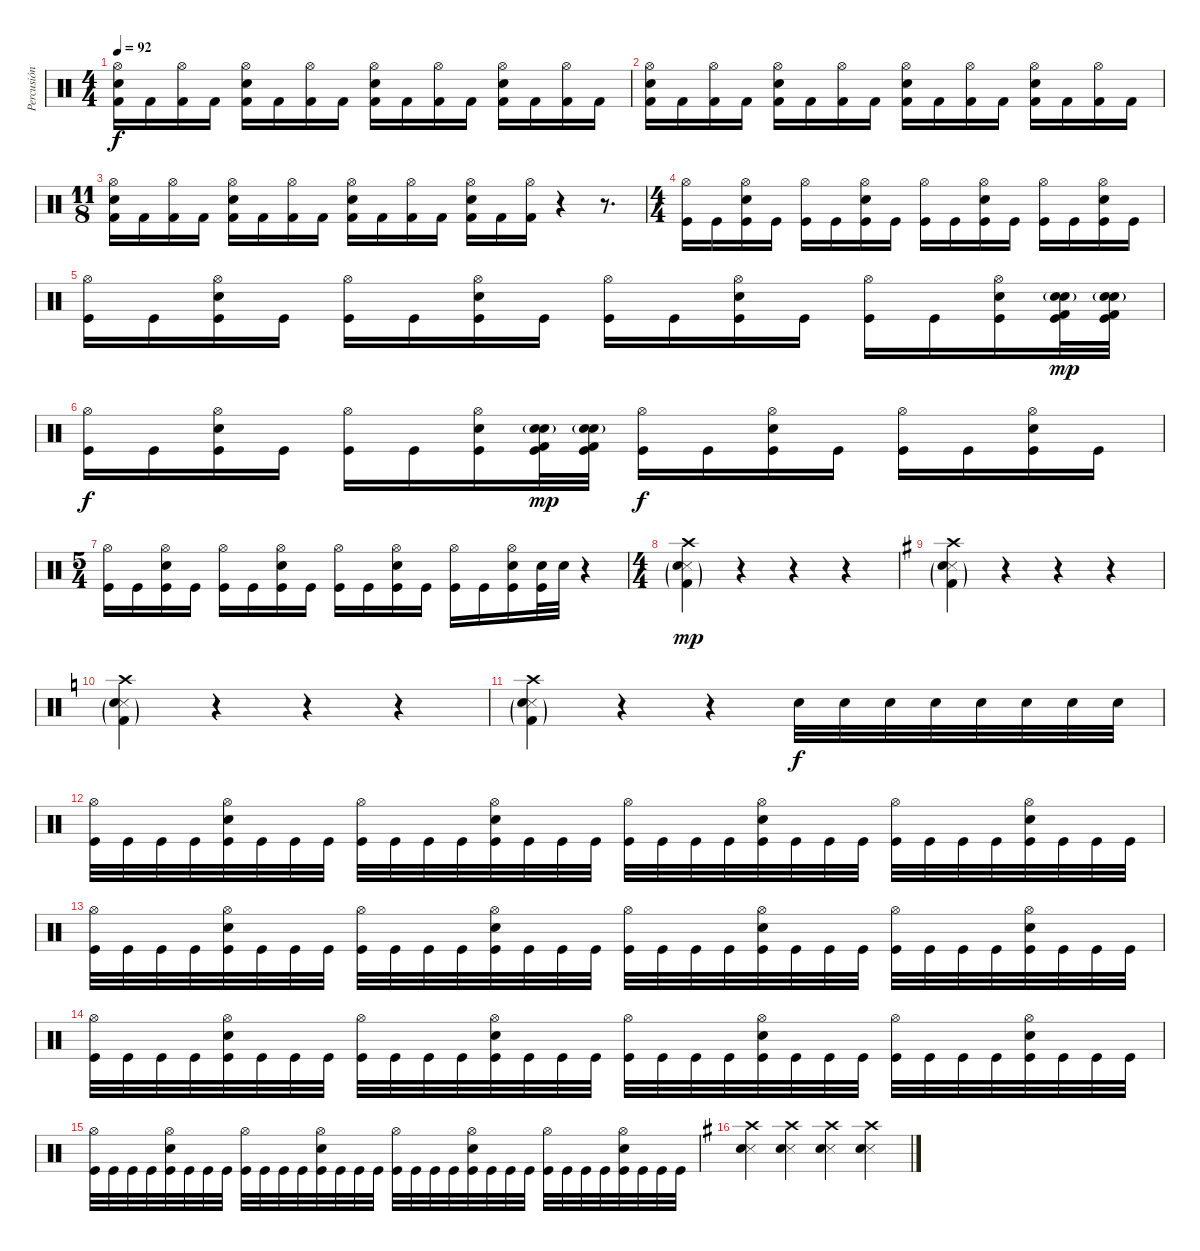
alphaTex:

\track ("Percusión" "Percusión") {instrument percussion}
\staff {score}
\articulation defaults
\ts (4 4)
\tempo 92
\clef neutral
\ks c
("Snare (hit) 2" "Hi-Hat (open)" "Kick (hit) 2").16{dy f} "Kick (hit) 2".16 ("Hi-Hat (open)" "Kick (hit) 2").16 "Kick (hit) 2".16 ("Snare (hit) 2" "Hi-Hat (open)" "Kick (hit) 2").16 "Kick (hit) 2".16 ("Hi-Hat (open)" "Kick (hit) 2").16 "Kick (hit) 2".16 ("Snare (hit) 2" "Hi-Hat (open)" "Kick (hit) 2").16 "Kick (hit) 2".16 ("Hi-Hat (open)" "Kick (hit) 2").16 "Kick (hit) 2".16 ("Snare (hit) 2" "Hi-Hat (open)" "Kick (hit) 2").16 "Kick (hit) 2".16 ("Hi-Hat (open)" "Kick (hit) 2").16 "Kick (hit) 2".16 |
("Snare (hit) 2" "Hi-Hat (open)" "Kick (hit) 2").16 "Kick (hit) 2".16 ("Hi-Hat (open)" "Kick (hit) 2").16 "Kick (hit) 2".16 ("Snare (hit) 2" "Hi-Hat (open)" "Kick (hit) 2").16 "Kick (hit) 2".16 ("Hi-Hat (open)" "Kick (hit) 2").16 "Kick (hit) 2".16 ("Snare (hit) 2" "Hi-Hat (open)" "Kick (hit) 2").16 "Kick (hit) 2".16 ("Hi-Hat (open)" "Kick (hit) 2").16 "Kick (hit) 2".16 ("Snare (hit) 2" "Hi-Hat (open)" "Kick (hit) 2").16 "Kick (hit) 2".16 ("Hi-Hat (open)" "Kick (hit) 2").16 "Kick (hit) 2".16 |
\ts (11 8)
("Snare (hit) 2" "Hi-Hat (open)" "Kick (hit) 2").16 "Kick (hit) 2".16 ("Hi-Hat (open)" "Kick (hit) 2").16 "Kick (hit) 2".16 ("Snare (hit) 2" "Hi-Hat (open)" "Kick (hit) 2").16 "Kick (hit) 2".16 ("Hi-Hat (open)" "Kick (hit) 2").16 "Kick (hit) 2".16 ("Snare (hit) 2" "Hi-Hat (open)" "Kick (hit) 2").16 "Kick (hit) 2".16 ("Hi-Hat (open)" "Kick (hit) 2").16 "Kick (hit) 2".16 ("Snare (hit) 2" "Hi-Hat (open)" "Kick (hit) 2").16 "Kick (hit) 2".16 ("Hi-Hat (open)" "Kick (hit) 2").16 r.4 r.8{d} |
\ts (4 4)
("Hi-Hat (open)" "Kick (hit)").16 "Kick (hit)".16 ("Snare (hit) 2" "Hi-Hat (open)" "Kick (hit)").16 "Kick (hit)".16 ("Hi-Hat (open)" "Kick (hit)").16 "Kick (hit)".16 ("Snare (hit) 2" "Hi-Hat (open)" "Kick (hit)").16 "Kick (hit)".16 ("Hi-Hat (open)" "Kick (hit)").16 "Kick (hit)".16 ("Snare (hit) 2" "Hi-Hat (open)" "Kick (hit)").16 "Kick (hit)".16 ("Hi-Hat (open)" "Kick (hit)").16 "Kick (hit)".16 ("Snare (hit) 2" "Hi-Hat (open)" "Kick (hit)").16 "Kick (hit)".16 |
("Hi-Hat (open)" "Kick (hit)").16 "Kick (hit)".16 ("Snare (hit) 2" "Hi-Hat (open)" "Kick (hit)").16 "Kick (hit)".16 ("Hi-Hat (open)" "Kick (hit)").16 "Kick (hit)".16 ("Snare (hit) 2" "Hi-Hat (open)" "Kick (hit)").16 "Kick (hit)".16 ("Hi-Hat (open)" "Kick (hit)").16 "Kick (hit)".16 ("Snare (hit) 2" "Hi-Hat (open)" "Kick (hit)").16 "Kick (hit)".16 ("Hi-Hat (open)" "Kick (hit)").16 "Kick (hit)".16 ("Snare (hit) 2" "Hi-Hat (open)" "Kick (hit)").16 ("Snare (hit) 2"{g} "Electric Snare (hit)" "Kick (hit) 2" "Kick (hit)").32{dy mp} ("Snare (hit) 2"{g} "Electric Snare (hit)" "Kick (hit) 2" "Kick (hit)").32 |
("Hi-Hat (open)" "Kick (hit)").16{dy f} "Kick (hit)".16 ("Snare (hit) 2" "Hi-Hat (open)" "Kick (hit)").16 "Kick (hit)".16 ("Hi-Hat (open)" "Kick (hit)").16 "Kick (hit)".16 ("Snare (hit) 2" "Hi-Hat (open)" "Kick (hit)").16 ("Snare (hit) 2"{g} "Electric Snare (hit)" "Kick (hit) 2" "Kick (hit)").32{dy mp} ("Snare (hit) 2"{g} "Electric Snare (hit)" "Kick (hit) 2" "Kick (hit)").32 ("Hi-Hat (open)" "Kick (hit)").16{dy f} "Kick (hit)".16 ("Snare (hit) 2" "Hi-Hat (open)" "Kick (hit)").16 "Kick (hit)".16 ("Hi-Hat (open)" "Kick (hit)").16 "Kick (hit)".16 ("Snare (hit) 2" "Hi-Hat (open)" "Kick (hit)").16 "Kick (hit)".16 |
\ts (5 4)
("Hi-Hat (open)" "Kick (hit)").16 "Kick (hit)".16 ("Snare (hit) 2" "Hi-Hat (open)" "Kick (hit)").16 "Kick (hit)".16 ("Hi-Hat (open)" "Kick (hit)").16 "Kick (hit)".16 ("Snare (hit) 2" "Hi-Hat (open)" "Kick (hit)").16 "Kick (hit)".16 ("Hi-Hat (open)" "Kick (hit)").16 "Kick (hit)".16 ("Snare (hit) 2" "Hi-Hat (open)" "Kick (hit)").16 "Kick (hit)".16 ("Hi-Hat (open)" "Kick (hit)").16 "Kick (hit)".16 ("Snare (hit) 2" "Hi-Hat (open)" "Kick (hit)").16 ("Snare (hit) 2" "Kick (hit)").32 "Snare (hit) 2".32 r.4 |
\ts (4 4)
("Snare (side stick) 3" "Snare (hit) 2"{g} "Crash high (hit)" "Kick (hit) 2"{g}).4{dy mp} r.4 r.4 r.4 |
\ks g
("Snare (side stick) 3" "Snare (hit) 2"{g} "Crash high (hit)" "Kick (hit) 2"{g}).4 r.4 r.4 r.4 |
\ks c
("Snare (side stick) 3" "Snare (hit) 2"{g} "Crash high (hit)" "Kick (hit) 2"{g}).4 r.4 r.4 r.4 |
("Snare (side stick) 3" "Snare (hit) 2"{g} "Crash high (hit)" "Kick (hit) 2"{g}).4 r.4 r.4 "Snare (hit) 2".32{dy f} "Snare (hit) 2".32 "Snare (hit) 2".32 "Snare (hit) 2".32 "Snare (hit) 2".32 "Snare (hit) 2".32 "Snare (hit) 2".32 "Snare (hit) 2".32 |
("Hi-Hat (open)" "Kick (hit)").32 "Kick (hit)".32 "Kick (hit)".32 "Kick (hit)".32 ("Snare (hit) 2" "Hi-Hat (open)" "Kick (hit)").32 "Kick (hit)".32 "Kick (hit)".32 "Kick (hit)".32 ("Hi-Hat (open)" "Kick (hit)").32 "Kick (hit)".32 "Kick (hit)".32 "Kick (hit)".32 ("Snare (hit) 2" "Hi-Hat (open)" "Kick (hit)").32 "Kick (hit)".32 "Kick (hit)".32 "Kick (hit)".32 ("Hi-Hat (open)" "Kick (hit)").32 "Kick (hit)".32 "Kick (hit)".32 "Kick (hit)".32 ("Snare (hit) 2" "Hi-Hat (open)" "Kick (hit)").32 "Kick (hit)".32 "Kick (hit)".32 "Kick (hit)".32 ("Hi-Hat (open)" "Kick (hit)").32 "Kick (hit)".32 "Kick (hit)".32 "Kick (hit)".32 ("Snare (hit) 2" "Hi-Hat (open)" "Kick (hit)").32 "Kick (hit)".32 "Kick (hit)".32 "Kick (hit)".32 |
("Hi-Hat (open)" "Kick (hit)").32 "Kick (hit)".32 "Kick (hit)".32 "Kick (hit)".32 ("Snare (hit) 2" "Hi-Hat (open)" "Kick (hit)").32 "Kick (hit)".32 "Kick (hit)".32 "Kick (hit)".32 ("Hi-Hat (open)" "Kick (hit)").32 "Kick (hit)".32 "Kick (hit)".32 "Kick (hit)".32 ("Snare (hit) 2" "Hi-Hat (open)" "Kick (hit)").32 "Kick (hit)".32 "Kick (hit)".32 "Kick (hit)".32 ("Hi-Hat (open)" "Kick (hit)").32 "Kick (hit)".32 "Kick (hit)".32 "Kick (hit)".32 ("Snare (hit) 2" "Hi-Hat (open)" "Kick (hit)").32 "Kick (hit)".32 "Kick (hit)".32 "Kick (hit)".32 ("Hi-Hat (open)" "Kick (hit)").32 "Kick (hit)".32 "Kick (hit)".32 "Kick (hit)".32 ("Snare (hit) 2" "Hi-Hat (open)" "Kick (hit)").32 "Kick (hit)".32 "Kick (hit)".32 "Kick (hit)".32 |
("Hi-Hat (open)" "Kick (hit)").32 "Kick (hit)".32 "Kick (hit)".32 "Kick (hit)".32 ("Snare (hit) 2" "Hi-Hat (open)" "Kick (hit)").32 "Kick (hit)".32 "Kick (hit)".32 "Kick (hit)".32 ("Hi-Hat (open)" "Kick (hit)").32 "Kick (hit)".32 "Kick (hit)".32 "Kick (hit)".32 ("Snare (hit) 2" "Hi-Hat (open)" "Kick (hit)").32 "Kick (hit)".32 "Kick (hit)".32 "Kick (hit)".32 ("Hi-Hat (open)" "Kick (hit)").32 "Kick (hit)".32 "Kick (hit)".32 "Kick (hit)".32 ("Snare (hit) 2" "Hi-Hat (open)" "Kick (hit)").32 "Kick (hit)".32 "Kick (hit)".32 "Kick (hit)".32 ("Hi-Hat (open)" "Kick (hit)").32 "Kick (hit)".32 "Kick (hit)".32 "Kick (hit)".32 ("Snare (hit) 2" "Hi-Hat (open)" "Kick (hit)").32 "Kick (hit)".32 "Kick (hit)".32 "Kick (hit)".32 |
("Hi-Hat (open)" "Kick (hit)").32 "Kick (hit)".32 "Kick (hit)".32 "Kick (hit)".32 ("Snare (hit) 2" "Hi-Hat (open)" "Kick (hit)").32 "Kick (hit)".32 "Kick (hit)".32 "Kick (hit)".32 ("Hi-Hat (open)" "Kick (hit)").32 "Kick (hit)".32 "Kick (hit)".32 "Kick (hit)".32 ("Snare (hit) 2" "Hi-Hat (open)" "Kick (hit)").32 "Kick (hit)".32 "Kick (hit)".32 "Kick (hit)".32 ("Hi-Hat (open)" "Kick (hit)").32 "Kick (hit)".32 "Kick (hit)".32 "Kick (hit)".32 ("Snare (hit) 2" "Hi-Hat (open)" "Kick (hit)").32 "Kick (hit)".32 "Kick (hit)".32 "Kick (hit)".32 ("Hi-Hat (open)" "Kick (hit)").32 "Kick (hit)".32 "Kick (hit)".32 "Kick (hit)".32 ("Snare (hit) 2" "Hi-Hat (open)" "Kick (hit)").32 "Kick (hit)".32 "Kick (hit)".32 "Kick (hit)".32 |
\ks g
("Snare (side stick) 3" "Snare (hit) 2" "Crash high (hit)").4 ("Snare (side stick) 3" "Snare (hit) 2" "Crash high (hit)").4 ("Snare (side stick) 3" "Snare (hit) 2" "Crash high (hit)").4 ("Snare (side stick) 3" "Snare (hit) 2" "Crash high (hit)").4
